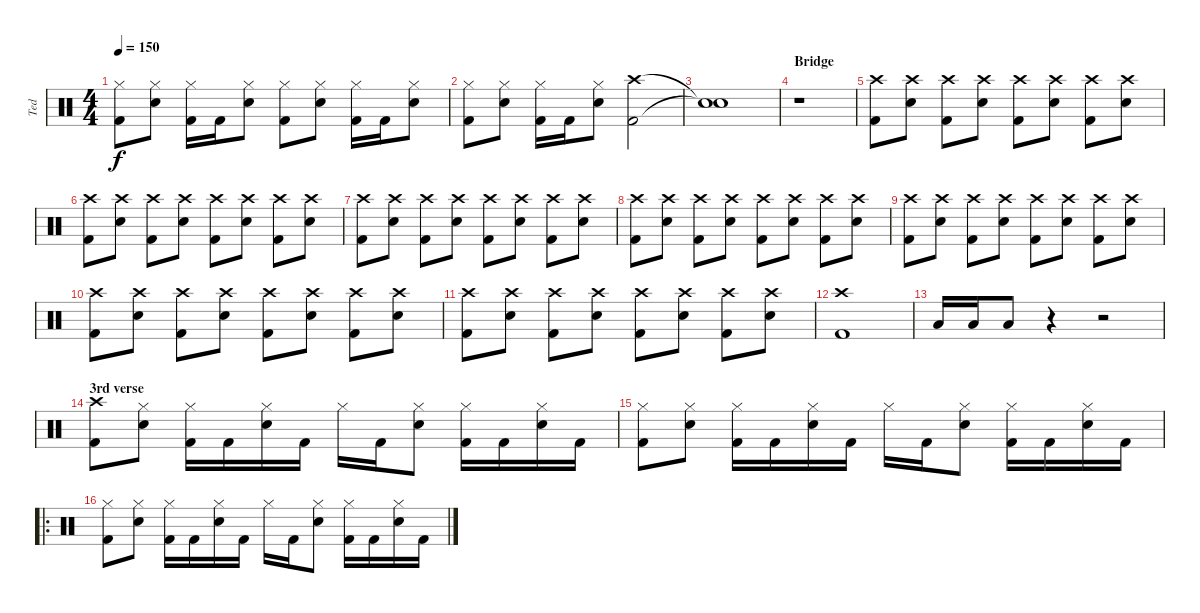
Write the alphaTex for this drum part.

\track ("Ted" "Ted") {instrument percussion}
\staff {score}
\articulation defaults
\ts (4 4)
\tempo 150
\clef neutral
\ks c
("Hi-Hat (closed)" "Kick (hit) 2").8{dy f} ("Hi-Hat (closed)" "Electric Snare (hit)").8 ("Hi-Hat (closed)" "Kick (hit) 2").16 "Kick (hit) 2".16 ("Hi-Hat (closed)" "Electric Snare (hit)").8 ("Hi-Hat (closed)" "Kick (hit) 2").8 ("Hi-Hat (closed)" "Electric Snare (hit)").8 ("Hi-Hat (closed)" "Kick (hit) 2").16 "Kick (hit) 2".16 ("Hi-Hat (closed)" "Electric Snare (hit)").8 |
("Hi-Hat (closed)" "Kick (hit) 2").8 ("Hi-Hat (closed)" "Electric Snare (hit)").8 ("Hi-Hat (closed)" "Kick (hit) 2").16 "Kick (hit) 2".16 ("Hi-Hat (closed)" "Electric Snare (hit)").8 ("Crash high (hit)" "Kick (hit) 2").2 |
("Snare (hit)"{t} "Snare (hit)"{t}).1 |
\section ("" "Bridge")
r.1 |
("Crash high (hit)" "Kick (hit) 2").8 ("Crash high (hit)" "Electric Snare (hit)").8 ("Crash high (hit)" "Kick (hit) 2").8 ("Crash high (hit)" "Electric Snare (hit)").8 ("Crash high (hit)" "Kick (hit) 2").8 ("Crash high (hit)" "Electric Snare (hit)").8 ("Crash high (hit)" "Kick (hit) 2").8 ("Crash high (hit)" "Electric Snare (hit)").8 |
("Crash high (hit)" "Kick (hit) 2").8 ("Crash high (hit)" "Electric Snare (hit)").8 ("Crash high (hit)" "Kick (hit) 2").8 ("Crash high (hit)" "Electric Snare (hit)").8 ("Crash high (hit)" "Kick (hit) 2").8 ("Crash high (hit)" "Electric Snare (hit)").8 ("Crash high (hit)" "Kick (hit) 2").8 ("Crash high (hit)" "Electric Snare (hit)").8 |
("Crash high (hit)" "Kick (hit) 2").8 ("Crash high (hit)" "Electric Snare (hit)").8 ("Crash high (hit)" "Kick (hit) 2").8 ("Crash high (hit)" "Electric Snare (hit)").8 ("Crash high (hit)" "Kick (hit) 2").8 ("Crash high (hit)" "Electric Snare (hit)").8 ("Crash high (hit)" "Kick (hit) 2").8 ("Crash high (hit)" "Electric Snare (hit)").8 |
("Crash high (hit)" "Kick (hit) 2").8 ("Crash high (hit)" "Electric Snare (hit)").8 ("Crash high (hit)" "Kick (hit) 2").8 ("Crash high (hit)" "Electric Snare (hit)").8 ("Crash high (hit)" "Kick (hit) 2").8 ("Crash high (hit)" "Electric Snare (hit)").8 ("Crash high (hit)" "Kick (hit) 2").8 ("Crash high (hit)" "Electric Snare (hit)").8 |
("Crash high (hit)" "Kick (hit) 2").8 ("Crash high (hit)" "Electric Snare (hit)").8 ("Crash high (hit)" "Kick (hit) 2").8 ("Crash high (hit)" "Electric Snare (hit)").8 ("Crash high (hit)" "Kick (hit) 2").8 ("Crash high (hit)" "Electric Snare (hit)").8 ("Crash high (hit)" "Kick (hit) 2").8 ("Crash high (hit)" "Electric Snare (hit)").8 |
("Crash high (hit)" "Kick (hit) 2").8 ("Crash high (hit)" "Electric Snare (hit)").8 ("Crash high (hit)" "Kick (hit) 2").8 ("Crash high (hit)" "Electric Snare (hit)").8 ("Crash high (hit)" "Kick (hit) 2").8 ("Crash high (hit)" "Electric Snare (hit)").8 ("Crash high (hit)" "Kick (hit) 2").8 ("Crash high (hit)" "Electric Snare (hit)").8 |
("Crash high (hit)" "Kick (hit) 2").8 ("Crash high (hit)" "Electric Snare (hit)").8 ("Crash high (hit)" "Kick (hit) 2").8 ("Crash high (hit)" "Electric Snare (hit)").8 ("Crash high (hit)" "Kick (hit) 2").8 ("Crash high (hit)" "Electric Snare (hit)").8 ("Crash high (hit)" "Kick (hit) 2").8 ("Crash high (hit)" "Electric Snare (hit)").8 |
("Crash high (hit)" "Kick (hit) 2").1 |
"Low Tom (hit)".16 "Low Tom (hit)".16 "Low Tom (hit)".8 r.4 r.2 |
\section ("" "3rd verse")
("Crash high (hit)" "Kick (hit) 2").8 ("Hi-Hat (closed)" "Electric Snare (hit)").8 ("Hi-Hat (closed)" "Kick (hit) 2").16 "Kick (hit) 2".16 ("Hi-Hat (closed)" "Electric Snare (hit)").16 "Kick (hit) 2".16 "Hi-Hat (closed)".16 "Kick (hit) 2".16 ("Hi-Hat (closed)" "Electric Snare (hit)").8 ("Hi-Hat (closed)" "Kick (hit) 2").16 "Kick (hit) 2".16 ("Hi-Hat (closed)" "Electric Snare (hit)").16 "Kick (hit) 2".16 |
("Hi-Hat (closed)" "Kick (hit) 2").8 ("Hi-Hat (closed)" "Electric Snare (hit)").8 ("Hi-Hat (closed)" "Kick (hit) 2").16 "Kick (hit) 2".16 ("Hi-Hat (closed)" "Electric Snare (hit)").16 "Kick (hit) 2".16 "Hi-Hat (closed)".16 "Kick (hit) 2".16 ("Hi-Hat (closed)" "Electric Snare (hit)").8 ("Hi-Hat (closed)" "Kick (hit) 2").16 "Kick (hit) 2".16 ("Hi-Hat (closed)" "Electric Snare (hit)").16 "Kick (hit) 2".16 |
\ro
("Hi-Hat (closed)" "Kick (hit) 2").8 ("Hi-Hat (closed)" "Electric Snare (hit)").8 ("Hi-Hat (closed)" "Kick (hit) 2").16 "Kick (hit) 2".16 ("Hi-Hat (closed)" "Electric Snare (hit)").16 "Kick (hit) 2".16 "Hi-Hat (closed)".16 "Kick (hit) 2".16 ("Hi-Hat (closed)" "Electric Snare (hit)").8 ("Hi-Hat (closed)" "Kick (hit) 2").16 "Kick (hit) 2".16 ("Hi-Hat (closed)" "Electric Snare (hit)").16 "Kick (hit) 2".16
